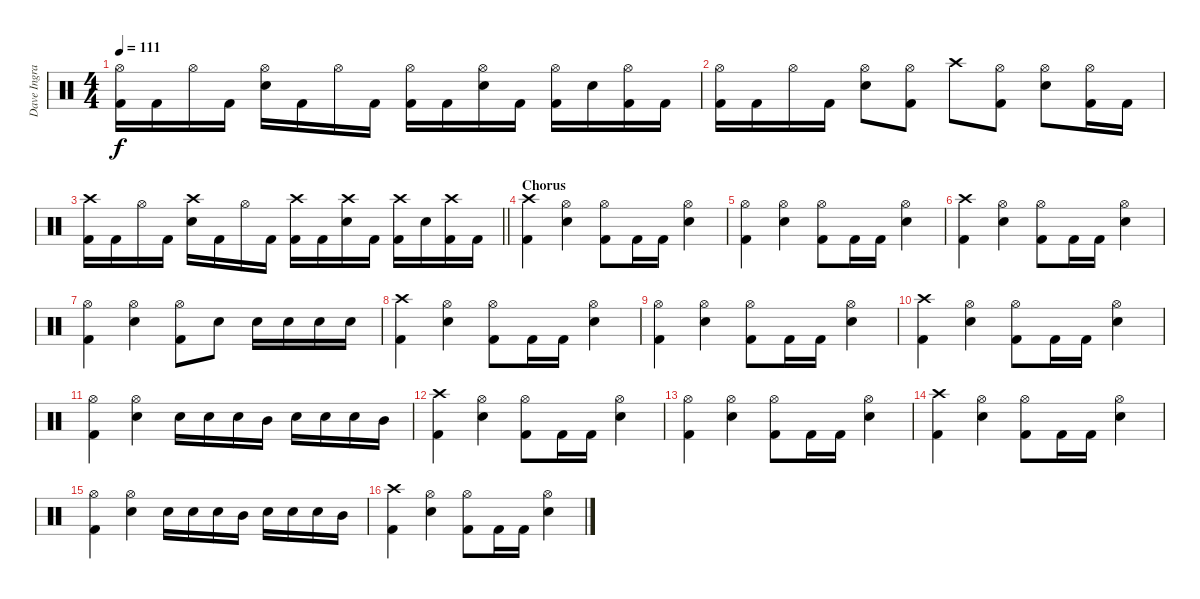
\track ("Dave Ingraham" "Dave Ingra") {instrument percussion}
\staff {score}
\articulation defaults
\ts (4 4)
\tempo 111
\clef neutral
\ks c
("Hi-Hat (open)" "Kick (hit) 2").16{dy f} "Kick (hit) 2".16 "Hi-Hat (open)".16 "Kick (hit) 2".16 ("Hi-Hat (open)" "Electric Snare (hit)").16 "Kick (hit) 2".16 "Hi-Hat (open)".16 "Kick (hit) 2".16 ("Hi-Hat (open)" "Kick (hit) 2").16 "Kick (hit) 2".16 ("Hi-Hat (open)" "Electric Snare (hit)").16 "Kick (hit) 2".16 ("Hi-Hat (open)" "Kick (hit) 2").16 "Electric Snare (hit)".16 ("Hi-Hat (open)" "Kick (hit) 2").16 "Kick (hit) 2".16 |
("Hi-Hat (open)" "Kick (hit) 2").16 "Kick (hit) 2".16 "Hi-Hat (open)".16 "Kick (hit) 2".16 ("Hi-Hat (open)" "Electric Snare (hit)").8 ("Hi-Hat (open)" "Kick (hit) 2").8 "Crash high (hit)".8 ("Hi-Hat (open)" "Kick (hit) 2").8 ("Hi-Hat (open)" "Electric Snare (hit)").8 ("Hi-Hat (open)" "Kick (hit) 2").16 "Kick (hit) 2".16 |
\barLineRight lightlight
("Crash high (hit)" "Kick (hit) 2").16 "Kick (hit) 2".16 "Hi-Hat (open)".16 "Kick (hit) 2".16 ("Crash high (hit)" "Electric Snare (hit)").16 "Kick (hit) 2".16 "Hi-Hat (open)".16 "Kick (hit) 2".16 ("Crash high (hit)" "Kick (hit) 2").16 "Kick (hit) 2".16 ("Crash high (hit)" "Electric Snare (hit)").16 "Kick (hit) 2".16 ("Crash high (hit)" "Kick (hit) 2").16 "Electric Snare (hit)".16 ("Crash high (hit)" "Kick (hit) 2").16 "Kick (hit) 2".16 |
\section ("" "Chorus")
("Crash high (hit)" "Kick (hit) 2").4 ("Hi-Hat (open)" "Electric Snare (hit)").4 ("Hi-Hat (open)" "Kick (hit) 2").8 "Kick (hit) 2".16 "Kick (hit) 2".16 ("Hi-Hat (open)" "Electric Snare (hit)").4 |
("Hi-Hat (open)" "Kick (hit) 2").4 ("Hi-Hat (open)" "Electric Snare (hit)").4 ("Hi-Hat (open)" "Kick (hit) 2").8 "Kick (hit) 2".16 "Kick (hit) 2".16 ("Hi-Hat (open)" "Electric Snare (hit)").4 |
("Crash high (hit)" "Kick (hit) 2").4 ("Hi-Hat (open)" "Electric Snare (hit)").4 ("Hi-Hat (open)" "Kick (hit) 2").8 "Kick (hit) 2".16 "Kick (hit) 2".16 ("Hi-Hat (open)" "Electric Snare (hit)").4 |
("Hi-Hat (open)" "Kick (hit) 2").4 ("Hi-Hat (open)" "Electric Snare (hit)").4 ("Hi-Hat (open)" "Kick (hit) 2").8 "Electric Snare (hit)".8 "Electric Snare (hit)".16 "Electric Snare (hit)".16 "Electric Snare (hit)".16 "Electric Snare (hit)".16 |
("Crash high (hit)" "Kick (hit) 2").4 ("Hi-Hat (open)" "Electric Snare (hit)").4 ("Hi-Hat (open)" "Kick (hit) 2").8 "Kick (hit) 2".16 "Kick (hit) 2".16 ("Hi-Hat (open)" "Electric Snare (hit)").4 |
("Hi-Hat (open)" "Kick (hit) 2").4 ("Hi-Hat (open)" "Electric Snare (hit)").4 ("Hi-Hat (open)" "Kick (hit) 2").8 "Kick (hit) 2".16 "Kick (hit) 2".16 ("Hi-Hat (open)" "Electric Snare (hit)").4 |
("Crash high (hit)" "Kick (hit) 2").4 ("Hi-Hat (open)" "Electric Snare (hit)").4 ("Hi-Hat (open)" "Kick (hit) 2").8 "Kick (hit) 2".16 "Kick (hit) 2".16 ("Hi-Hat (open)" "Electric Snare (hit)").4 |
("Hi-Hat (open)" "Kick (hit) 2").4 ("Hi-Hat (open)" "Electric Snare (hit)").4 "Electric Snare (hit)".16 "Electric Snare (hit)".16 "Electric Snare (hit)".16 "Mid Tom (hit)".16 "Electric Snare (hit)".16 "Electric Snare (hit)".16 "Electric Snare (hit)".16 "Mid Tom (hit)".16 |
("Crash high (hit)" "Kick (hit) 2").4 ("Hi-Hat (open)" "Electric Snare (hit)").4 ("Hi-Hat (open)" "Kick (hit) 2").8 "Kick (hit) 2".16 "Kick (hit) 2".16 ("Hi-Hat (open)" "Electric Snare (hit)").4 |
("Hi-Hat (open)" "Kick (hit) 2").4 ("Hi-Hat (open)" "Electric Snare (hit)").4 ("Hi-Hat (open)" "Kick (hit) 2").8 "Kick (hit) 2".16 "Kick (hit) 2".16 ("Hi-Hat (open)" "Electric Snare (hit)").4 |
("Crash high (hit)" "Kick (hit) 2").4 ("Hi-Hat (open)" "Electric Snare (hit)").4 ("Hi-Hat (open)" "Kick (hit) 2").8 "Kick (hit) 2".16 "Kick (hit) 2".16 ("Hi-Hat (open)" "Electric Snare (hit)").4 |
("Hi-Hat (open)" "Kick (hit) 2").4 ("Hi-Hat (open)" "Electric Snare (hit)").4 "Electric Snare (hit)".16 "Electric Snare (hit)".16 "Electric Snare (hit)".16 "Mid Tom (hit)".16 "Electric Snare (hit)".16 "Electric Snare (hit)".16 "Electric Snare (hit)".16 "Mid Tom (hit)".16 |
("Crash high (hit)" "Kick (hit) 2").4 ("Hi-Hat (open)" "Electric Snare (hit)").4 ("Hi-Hat (open)" "Kick (hit) 2").8 "Kick (hit) 2".16 "Kick (hit) 2".16 ("Hi-Hat (open)" "Electric Snare (hit)").4
